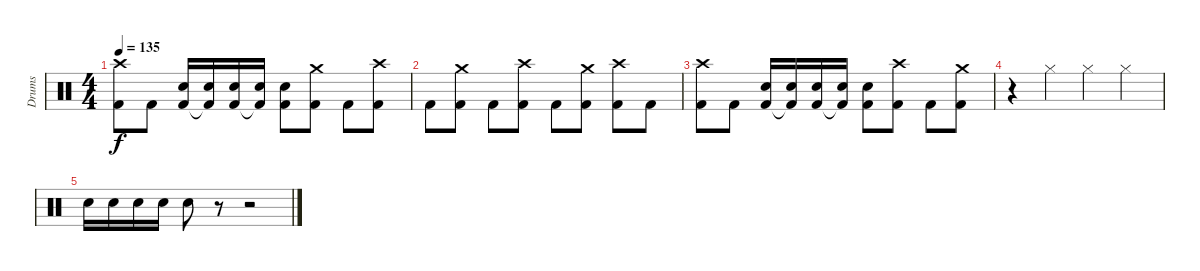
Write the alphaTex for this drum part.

\track ("Drums" "Drums") {instrument percussion}
\staff {score}
\articulation defaults
\ts (4 4)
\tempo 135
\clef neutral
\ks c
("Crash high (hit)" "Kick (hit) 2").8{dy f} "Kick (hit) 2".8 ("Snare (hit) 2" "Kick (hit) 2").16 ("Snare (hit) 2" "Kick (hit) 2"{t}).16 ("Snare (hit) 2" "Kick (hit) 2").16 ("Snare (hit) 2" "Kick (hit) 2"{t}).16 ("Snare (hit) 2" "Kick (hit) 2").8 ("Crash medium (hit)" "Kick (hit) 2").8 "Kick (hit) 2".8 ("Crash high (hit)" "Kick (hit) 2").8 |
"Kick (hit) 2".8 ("Crash medium (hit)" "Kick (hit) 2").8 "Kick (hit) 2".8 ("Crash high (hit)" "Kick (hit) 2").8 "Kick (hit) 2".8 ("Crash medium (hit)" "Kick (hit) 2").8 ("Crash high (hit)" "Kick (hit) 2").8 "Kick (hit) 2".8 |
("Crash high (hit)" "Kick (hit) 2").8 "Kick (hit) 2".8 ("Snare (hit) 2" "Kick (hit) 2").16 ("Snare (hit) 2" "Kick (hit) 2"{t}).16 ("Snare (hit) 2" "Kick (hit) 2").16 ("Snare (hit) 2" "Kick (hit) 2"{t}).16 ("Snare (hit) 2" "Kick (hit) 2").8 ("Crash high (hit)" "Kick (hit) 2").8 "Kick (hit) 2".8 ("Crash medium (hit)" "Kick (hit) 2").8 |
r.4 "Hi-Hat (closed)".4 "Hi-Hat (closed)".4 "Hi-Hat (closed)".4 |
"Snare (hit) 2".16 "Snare (hit) 2".16 "Snare (hit) 2".16 "Snare (hit) 2".16 "Snare (hit) 2".8 r.8 r.2
